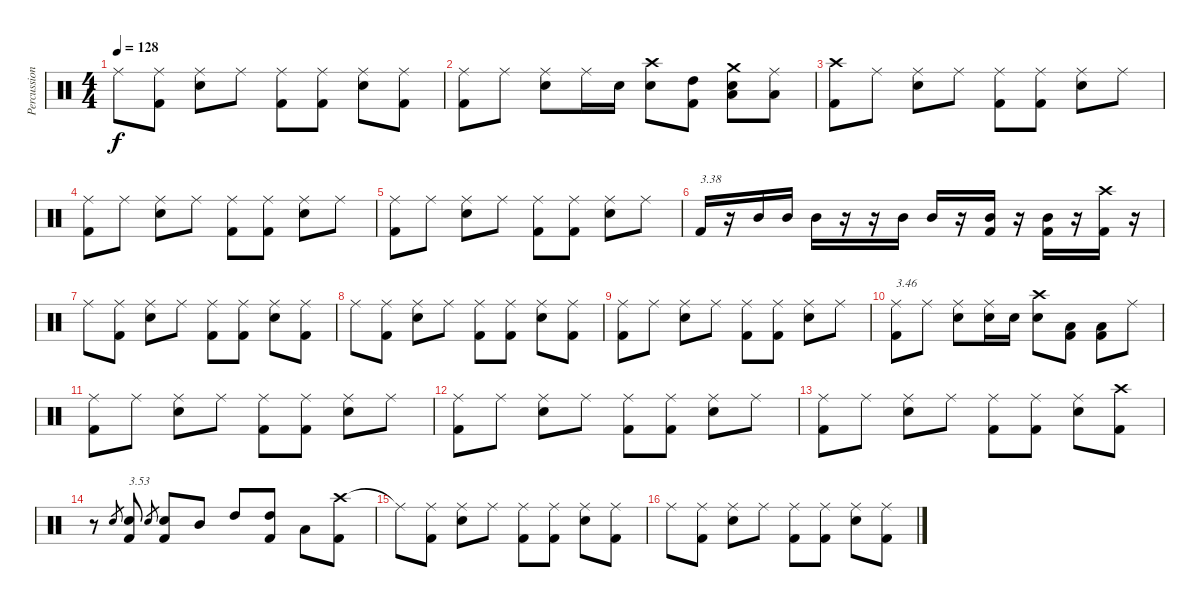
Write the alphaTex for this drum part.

\track ("Percussion" "Percussion") {instrument percussion bank 10}
\staff {score}
\articulation defaults
\ts (4 4)
\tempo 128
\clef neutral
\ks c "Ride (middle)".8{dy f}
("Ride (middle)" "Kick (hit) 2").8 ("Ride (middle)" "Snare (hit) 2").8 "Ride (middle)".8 ("Ride (middle)" "Kick (hit) 2").8 ("Ride (middle)" "Kick (hit) 2").8 ("Ride (middle)" "Snare (hit) 2").8 ("Ride (middle)" "Kick (hit) 2").8 |
("Ride (middle)" "Kick (hit) 2").8 "Ride (middle)".8 ("Ride (middle)" "Snare (hit) 2").8 "Ride (middle)".16 "Snare (hit) 2".16 ("Crash high (hit)" "Snare (hit) 2").8 ("High Tom (hit)" "Kick (hit) 2").8 ("Crash medium (hit)" "Low Tom (hit)" "Snare (hit) 2").8 ("Ride (middle)" "Low Tom (hit)").8 |
("Crash high (hit)" "Kick (hit) 2").8 "Ride (middle)".8 ("Ride (middle)" "Snare (hit) 2").8 "Ride (middle)".8 ("Ride (middle)" "Kick (hit) 2").8 ("Ride (middle)" "Kick (hit) 2").8 ("Ride (middle)" "Snare (hit) 2").8 "Ride (middle)".8 |
("Ride (middle)" "Kick (hit) 2").8 "Ride (middle)".8 ("Ride (middle)" "Snare (hit) 2").8 "Ride (middle)".8 ("Ride (middle)" "Kick (hit) 2").8 ("Ride (middle)" "Kick (hit) 2").8 ("Ride (middle)" "Snare (hit) 2").8 "Ride (middle)".8 |
("Ride (middle)" "Kick (hit) 2").8 "Ride (middle)".8 ("Ride (middle)" "Snare (hit) 2").8 "Ride (middle)".8 ("Ride (middle)" "Kick (hit) 2").8 ("Ride (middle)" "Kick (hit) 2").8 ("Ride (middle)" "Snare (hit) 2").8 "Ride (middle)".8 |
"Kick (hit) 2".16{txt "3.38"} r.16 "Mid Tom (hit)".16 "Mid Tom (hit)".16 "Mid Tom (hit)".16 r.16 r.16 "Mid Tom (hit)".16 "Mid Tom (hit)".16 r.16 ("Mid Tom (hit)" "Kick (hit) 2").16 r.16 ("Mid Tom (hit)" "Kick (hit) 2").16 r.16 ("Crash high (hit)" "Kick (hit) 2").16 r.16 |
"Ride (middle)".8 ("Ride (middle)" "Kick (hit) 2").8 ("Ride (middle)" "Snare (hit) 2").8 "Ride (middle)".8 ("Ride (middle)" "Kick (hit) 2").8 ("Ride (middle)" "Kick (hit) 2").8 ("Ride (middle)" "Snare (hit) 2").8 ("Ride (middle)" "Kick (hit) 2").8 |
"Ride (middle)".8 ("Ride (middle)" "Kick (hit) 2").8 ("Ride (middle)" "Snare (hit) 2").8 "Ride (middle)".8 ("Ride (middle)" "Kick (hit) 2").8 ("Ride (middle)" "Kick (hit) 2").8 ("Ride (middle)" "Snare (hit) 2").8 ("Ride (middle)" "Kick (hit) 2").8 |
("Ride (middle)" "Kick (hit) 2").8 "Ride (middle)".8 ("Ride (middle)" "Snare (hit) 2").8 "Ride (middle)".8 ("Ride (middle)" "Kick (hit) 2").8 ("Ride (middle)" "Kick (hit) 2").8 ("Ride (middle)" "Snare (hit) 2").8 "Ride (middle)".8 |
("Ride (middle)" "Kick (hit) 2").8{txt "3.46"} "Ride (middle)".8 ("Ride (middle)" "Snare (hit) 2").8 ("Ride (middle)" "Snare (hit) 2").16 "Snare (hit) 2".16 ("Crash high (hit)" "Snare (hit) 2").8 ("Low Floor Tom (hit)" "Kick (hit) 2").8 ("Low Floor Tom (hit)" "Kick (hit) 2").8 "Ride (middle)".8 |
("Ride (middle)" "Kick (hit) 2").8 "Ride (middle)".8 ("Ride (middle)" "Snare (hit) 2").8 "Ride (middle)".8 ("Ride (middle)" "Kick (hit) 2").8 ("Ride (middle)" "Kick (hit) 2").8 ("Ride (middle)" "Snare (hit) 2").8 "Ride (middle)".8 |
("Ride (middle)" "Kick (hit) 2").8 "Ride (middle)".8 ("Ride (middle)" "Snare (hit) 2").8 "Ride (middle)".8 ("Ride (middle)" "Kick (hit) 2").8 ("Ride (middle)" "Kick (hit) 2").8 ("Ride (middle)" "Snare (hit) 2").8 "Ride (middle)".8 |
("Ride (middle)" "Kick (hit) 2").8 "Ride (middle)".8 ("Ride (middle)" "Snare (hit) 2").8 "Ride (middle)".8 ("Ride (middle)" "Kick (hit) 2").8 ("Ride (middle)" "Kick (hit) 2").8 ("Ride (middle)" "Snare (hit) 2").8 ("Crash high (hit)" "Kick (hit) 2").8 |
r.8 "Snare (hit) 2".8{gr} ("Snare (hit) 2" "Kick (hit) 2").8{txt "3.53"} "Snare (hit) 2".8{gr} ("Snare (hit) 2" "Kick (hit) 2").8 "Mid Tom (hit)".8 "High Tom (hit)".8 ("High Tom (hit)" "Kick (hit) 2").8 "Low Tom (hit)".8 ("Crash high (hit)" "Kick (hit) 2").8 |
"Ride (middle)"{t}.8 ("Ride (middle)" "Kick (hit) 2").8 ("Ride (middle)" "Snare (hit) 2").8 "Ride (middle)".8 ("Ride (middle)" "Kick (hit) 2").8 ("Ride (middle)" "Kick (hit) 2").8 ("Ride (middle)" "Snare (hit) 2").8 ("Ride (middle)" "Kick (hit) 2").8 |
"Ride (middle)".8 ("Ride (middle)" "Kick (hit) 2").8 ("Ride (middle)" "Snare (hit) 2").8 "Ride (middle)".8 ("Ride (middle)" "Kick (hit) 2").8 ("Ride (middle)" "Kick (hit) 2").8 ("Ride (middle)" "Snare (hit) 2").8 ("Ride (middle)" "Kick (hit) 2").8
